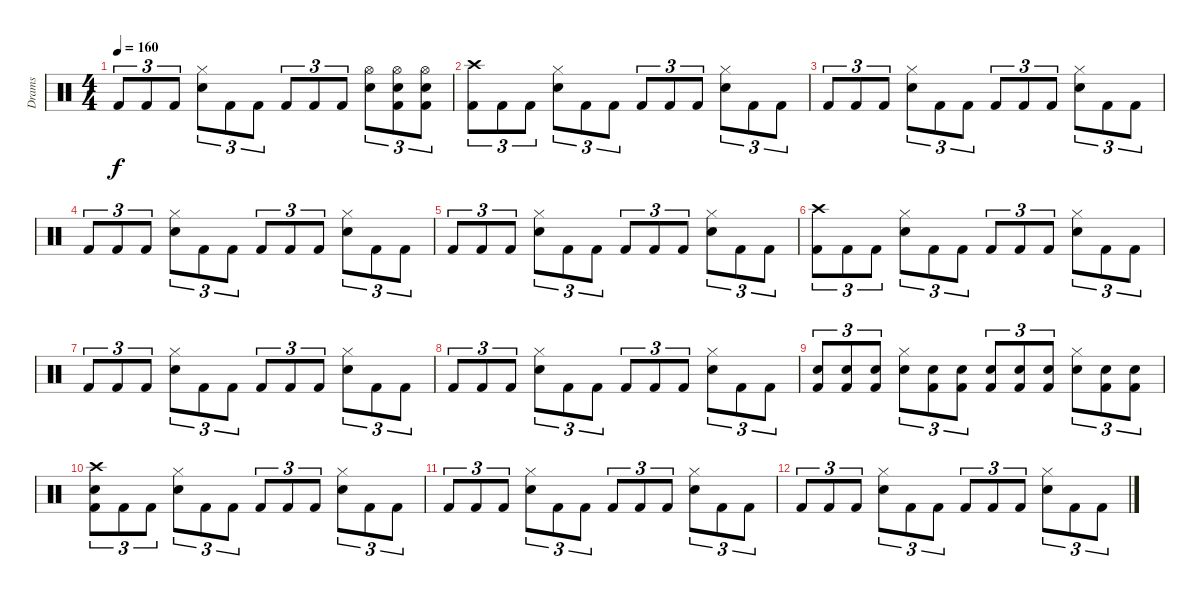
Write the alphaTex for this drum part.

\track ("Drams" "Drams") {instrument percussion}
\staff {score}
\articulation defaults
\ts (4 4)
\tempo 160
\clef neutral
\ks c "Kick (hit) 2".8{tu (3 2) dy f} "Kick (hit) 2".8{tu (3 2)} "Kick (hit) 2".8{tu (3 2)}
("Hi-Hat (closed)" "Snare (hit) 2").8{tu (3 2)} "Kick (hit) 2".8{tu (3 2)} "Kick (hit) 2".8{tu (3 2)} "Kick (hit) 2".8{tu (3 2)} "Kick (hit) 2".8{tu (3 2)} "Kick (hit) 2".8{tu (3 2)} ("Hi-Hat (open)" "Snare (hit) 2").8{tu (3 2)} ("Hi-Hat (open)" "Snare (hit) 2" "Kick (hit) 2").8{tu (3 2)} ("Hi-Hat (open)" "Snare (hit) 2" "Kick (hit) 2").8{tu (3 2)} |
("Crash high (hit)" "Kick (hit) 2").8{tu (3 2)} "Kick (hit) 2".8{tu (3 2)} "Kick (hit) 2".8{tu (3 2)} ("Hi-Hat (closed)" "Snare (hit) 2").8{tu (3 2)} "Kick (hit) 2".8{tu (3 2)} "Kick (hit) 2".8{tu (3 2)} "Kick (hit) 2".8{tu (3 2)} "Kick (hit) 2".8{tu (3 2)} "Kick (hit) 2".8{tu (3 2)} ("Hi-Hat (closed)" "Snare (hit) 2").8{tu (3 2)} "Kick (hit) 2".8{tu (3 2)} "Kick (hit) 2".8{tu (3 2)} |
"Kick (hit) 2".8{tu (3 2)} "Kick (hit) 2".8{tu (3 2)} "Kick (hit) 2".8{tu (3 2)} ("Hi-Hat (closed)" "Snare (hit) 2").8{tu (3 2)} "Kick (hit) 2".8{tu (3 2)} "Kick (hit) 2".8{tu (3 2)} "Kick (hit) 2".8{tu (3 2)} "Kick (hit) 2".8{tu (3 2)} "Kick (hit) 2".8{tu (3 2)} ("Hi-Hat (closed)" "Snare (hit) 2").8{tu (3 2)} "Kick (hit) 2".8{tu (3 2)} "Kick (hit) 2".8{tu (3 2)} |
"Kick (hit) 2".8{tu (3 2)} "Kick (hit) 2".8{tu (3 2)} "Kick (hit) 2".8{tu (3 2)} ("Hi-Hat (closed)" "Snare (hit) 2").8{tu (3 2)} "Kick (hit) 2".8{tu (3 2)} "Kick (hit) 2".8{tu (3 2)} "Kick (hit) 2".8{tu (3 2)} "Kick (hit) 2".8{tu (3 2)} "Kick (hit) 2".8{tu (3 2)} ("Hi-Hat (closed)" "Snare (hit) 2").8{tu (3 2)} "Kick (hit) 2".8{tu (3 2)} "Kick (hit) 2".8{tu (3 2)} |
"Kick (hit) 2".8{tu (3 2)} "Kick (hit) 2".8{tu (3 2)} "Kick (hit) 2".8{tu (3 2)} ("Hi-Hat (closed)" "Snare (hit) 2").8{tu (3 2)} "Kick (hit) 2".8{tu (3 2)} "Kick (hit) 2".8{tu (3 2)} "Kick (hit) 2".8{tu (3 2)} "Kick (hit) 2".8{tu (3 2)} "Kick (hit) 2".8{tu (3 2)} ("Hi-Hat (closed)" "Snare (hit) 2").8{tu (3 2)} "Kick (hit) 2".8{tu (3 2)} "Kick (hit) 2".8{tu (3 2)} |
("Crash high (hit)" "Kick (hit) 2").8{tu (3 2)} "Kick (hit) 2".8{tu (3 2)} "Kick (hit) 2".8{tu (3 2)} ("Hi-Hat (closed)" "Snare (hit) 2").8{tu (3 2)} "Kick (hit) 2".8{tu (3 2)} "Kick (hit) 2".8{tu (3 2)} "Kick (hit) 2".8{tu (3 2)} "Kick (hit) 2".8{tu (3 2)} "Kick (hit) 2".8{tu (3 2)} ("Hi-Hat (closed)" "Snare (hit) 2").8{tu (3 2)} "Kick (hit) 2".8{tu (3 2)} "Kick (hit) 2".8{tu (3 2)} |
"Kick (hit) 2".8{tu (3 2)} "Kick (hit) 2".8{tu (3 2)} "Kick (hit) 2".8{tu (3 2)} ("Hi-Hat (closed)" "Snare (hit) 2").8{tu (3 2)} "Kick (hit) 2".8{tu (3 2)} "Kick (hit) 2".8{tu (3 2)} "Kick (hit) 2".8{tu (3 2)} "Kick (hit) 2".8{tu (3 2)} "Kick (hit) 2".8{tu (3 2)} ("Hi-Hat (closed)" "Snare (hit) 2").8{tu (3 2)} "Kick (hit) 2".8{tu (3 2)} "Kick (hit) 2".8{tu (3 2)} |
"Kick (hit) 2".8{tu (3 2)} "Kick (hit) 2".8{tu (3 2)} "Kick (hit) 2".8{tu (3 2)} ("Hi-Hat (closed)" "Snare (hit) 2").8{tu (3 2)} "Kick (hit) 2".8{tu (3 2)} "Kick (hit) 2".8{tu (3 2)} "Kick (hit) 2".8{tu (3 2)} "Kick (hit) 2".8{tu (3 2)} "Kick (hit) 2".8{tu (3 2)} ("Hi-Hat (closed)" "Snare (hit) 2").8{tu (3 2)} "Kick (hit) 2".8{tu (3 2)} "Kick (hit) 2".8{tu (3 2)} |
("Snare (hit) 2" "Kick (hit) 2").8{tu (3 2)} ("Snare (hit) 2" "Kick (hit) 2").8{tu (3 2)} ("Snare (hit) 2" "Kick (hit) 2").8{tu (3 2)} ("Hi-Hat (closed)" "Snare (hit) 2").8{tu (3 2)} ("Snare (hit) 2" "Kick (hit) 2").8{tu (3 2)} ("Snare (hit) 2" "Kick (hit) 2").8{tu (3 2)} ("Snare (hit) 2" "Kick (hit) 2").8{tu (3 2)} ("Snare (hit) 2" "Kick (hit) 2").8{tu (3 2)} ("Snare (hit) 2" "Kick (hit) 2").8{tu (3 2)} ("Hi-Hat (closed)" "Snare (hit) 2").8{tu (3 2)} ("Snare (hit) 2" "Kick (hit) 2").8{tu (3 2)} ("Snare (hit) 2" "Kick (hit) 2").8{tu (3 2)} |
("Snare (hit) 2" "Crash high (hit)" "Kick (hit) 2").8{tu (3 2)} "Kick (hit) 2".8{tu (3 2)} "Kick (hit) 2".8{tu (3 2)} ("Hi-Hat (closed)" "Snare (hit) 2").8{tu (3 2)} "Kick (hit) 2".8{tu (3 2)} "Kick (hit) 2".8{tu (3 2)} "Kick (hit) 2".8{tu (3 2)} "Kick (hit) 2".8{tu (3 2)} "Kick (hit) 2".8{tu (3 2)} ("Hi-Hat (closed)" "Snare (hit) 2").8{tu (3 2)} "Kick (hit) 2".8{tu (3 2)} "Kick (hit) 2".8{tu (3 2)} |
"Kick (hit) 2".8{tu (3 2)} "Kick (hit) 2".8{tu (3 2)} "Kick (hit) 2".8{tu (3 2)} ("Hi-Hat (closed)" "Snare (hit) 2").8{tu (3 2)} "Kick (hit) 2".8{tu (3 2)} "Kick (hit) 2".8{tu (3 2)} "Kick (hit) 2".8{tu (3 2)} "Kick (hit) 2".8{tu (3 2)} "Kick (hit) 2".8{tu (3 2)} ("Hi-Hat (closed)" "Snare (hit) 2").8{tu (3 2)} "Kick (hit) 2".8{tu (3 2)} "Kick (hit) 2".8{tu (3 2)} |
"Kick (hit) 2".8{tu (3 2)} "Kick (hit) 2".8{tu (3 2)} "Kick (hit) 2".8{tu (3 2)} ("Hi-Hat (closed)" "Snare (hit) 2").8{tu (3 2)} "Kick (hit) 2".8{tu (3 2)} "Kick (hit) 2".8{tu (3 2)} "Kick (hit) 2".8{tu (3 2)} "Kick (hit) 2".8{tu (3 2)} "Kick (hit) 2".8{tu (3 2)} ("Hi-Hat (closed)" "Snare (hit) 2").8{tu (3 2)} "Kick (hit) 2".8{tu (3 2)} "Kick (hit) 2".8{tu (3 2)}
